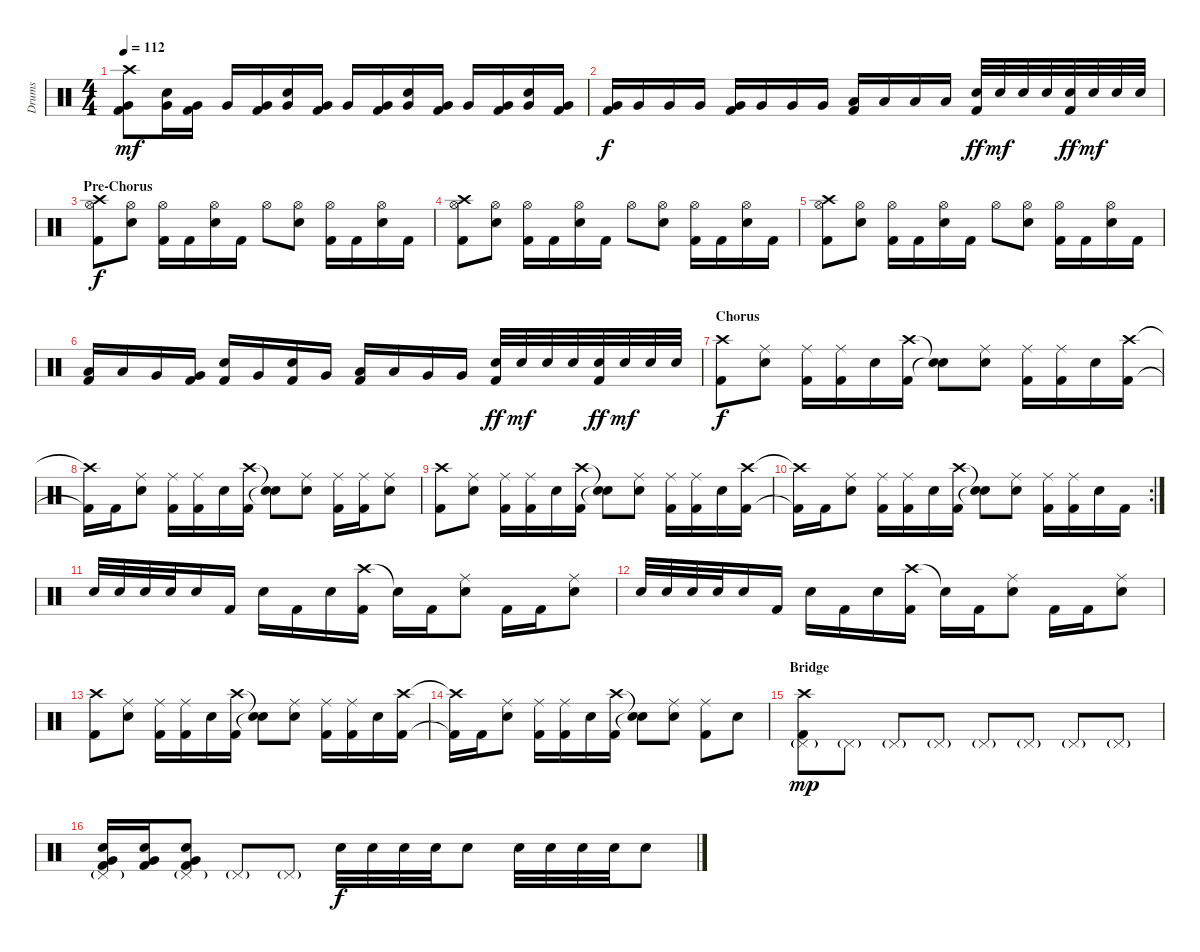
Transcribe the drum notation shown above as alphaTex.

\track ("Drums" "Drums") {instrument percussion}
\staff {score}
\articulation defaults
\ts (4 4)
\tempo 112
\clef neutral
\ks c
("Crash high (hit)" "Very Low Tom (hit)" "Kick (hit) 2").8{dy mf} ("Electric Snare (hit)" "Very Low Tom (hit)").16 ("Very Low Tom (hit)" "Kick (hit) 2").16 "Very Low Tom (hit)".16 ("Very Low Tom (hit)" "Kick (hit) 2").16 ("Electric Snare (hit)" "Very Low Tom (hit)").16 ("Very Low Tom (hit)" "Kick (hit) 2").16 "Very Low Tom (hit)".16 ("Very Low Tom (hit)" "Kick (hit) 2").16 ("Electric Snare (hit)" "Very Low Tom (hit)").16 ("Very Low Tom (hit)" "Kick (hit) 2").16 "Very Low Tom (hit)".16 ("Very Low Tom (hit)" "Kick (hit) 2").16 ("Electric Snare (hit)" "Very Low Tom (hit)").16 ("Very Low Tom (hit)" "Kick (hit) 2").16 |
("Very Low Tom (hit)" "Kick (hit) 2").16{dy f} "Very Low Tom (hit)".16 "Very Low Tom (hit)".16 "Very Low Tom (hit)".16 ("Very Low Tom (hit)" "Kick (hit) 2").16 "Very Low Tom (hit)".16 "Very Low Tom (hit)".16 "Very Low Tom (hit)".16 ("Low Tom (hit)" "Kick (hit) 2").16 "Low Tom (hit)".16 "Low Tom (hit)".16 "Low Tom (hit)".16 ("Electric Snare (hit)" "Kick (hit) 2").32{dy ff} "Electric Snare (hit)".32{dy mf} "Electric Snare (hit)".32 "Electric Snare (hit)".32 ("Electric Snare (hit)" "Kick (hit) 2").32{dy ff} "Electric Snare (hit)".32{dy mf} "Electric Snare (hit)".32 "Electric Snare (hit)".32 |
\section ("" "Pre-Chorus")
("Crash high (hit)" "Hi-Hat (open)" "Kick (hit) 2").8{dy f} ("Hi-Hat (open)" "Electric Snare (hit)").8 ("Hi-Hat (open)" "Kick (hit) 2").16 "Kick (hit) 2".16 ("Hi-Hat (open)" "Electric Snare (hit)").16 "Kick (hit) 2".16 "Hi-Hat (open)".8 ("Hi-Hat (open)" "Electric Snare (hit)").8 ("Hi-Hat (open)" "Kick (hit) 2").16 "Kick (hit) 2".16 ("Hi-Hat (open)" "Electric Snare (hit)").16 "Kick (hit) 2".16 |
("Crash high (hit)" "Hi-Hat (open)" "Kick (hit) 2").8 ("Hi-Hat (open)" "Electric Snare (hit)").8 ("Hi-Hat (open)" "Kick (hit) 2").16 "Kick (hit) 2".16 ("Hi-Hat (open)" "Electric Snare (hit)").16 "Kick (hit) 2".16 "Hi-Hat (open)".8 ("Hi-Hat (open)" "Electric Snare (hit)").8 ("Hi-Hat (open)" "Kick (hit) 2").16 "Kick (hit) 2".16 ("Hi-Hat (open)" "Electric Snare (hit)").16 "Kick (hit) 2".16 |
("Crash high (hit)" "Hi-Hat (open)" "Kick (hit) 2").8 ("Hi-Hat (open)" "Electric Snare (hit)").8 ("Hi-Hat (open)" "Kick (hit) 2").16 "Kick (hit) 2".16 ("Hi-Hat (open)" "Electric Snare (hit)").16 "Kick (hit) 2".16 "Hi-Hat (open)".8 ("Hi-Hat (open)" "Electric Snare (hit)").8 ("Hi-Hat (open)" "Kick (hit) 2").16 "Kick (hit) 2".16 ("Hi-Hat (open)" "Electric Snare (hit)").16 "Kick (hit) 2".16 |
("Low Tom (hit)" "Kick (hit) 2").16 "Low Tom (hit)".16 "Very Low Tom (hit)".16 ("Very Low Tom (hit)" "Kick (hit) 2").16 ("Electric Snare (hit)" "Kick (hit) 2").16 "Very Low Tom (hit)".16 ("Electric Snare (hit)" "Kick (hit) 2").16 "Very Low Tom (hit)".16 ("Low Tom (hit)" "Kick (hit) 2").16 "Low Tom (hit)".16 "Very Low Tom (hit)".16 "Very Low Tom (hit)".16 ("Electric Snare (hit)" "Kick (hit) 2").32{dy ff} "Electric Snare (hit)".32{dy mf} "Electric Snare (hit)".32 "Electric Snare (hit)".32 ("Electric Snare (hit)" "Kick (hit) 2").32{dy ff} "Electric Snare (hit)".32{dy mf} "Electric Snare (hit)".32 "Electric Snare (hit)".32 |
\section ("" "Chorus")
("Crash high (hit)" "Kick (hit) 2").8{dy f} ("Ride (middle)" "Electric Snare (hit)").8 ("Ride (middle)" "Kick (hit) 2").16 ("Ride (middle)" "Kick (hit) 2").16 "Electric Snare (hit)".16 ("Crash high (hit)" "Kick (hit) 2").16 ("Snare (hit)"{t} "Snare (hit)"{t}).8 ("Ride (middle)" "Electric Snare (hit)").8 ("Ride (middle)" "Kick (hit) 2").16 ("Ride (middle)" "Kick (hit) 2").16 "Electric Snare (hit)".16 ("Crash high (hit)" "Kick (hit) 2").16 |
("Crash high (hit)"{t} "Kick (hit) 2"{t}).16 "Kick (hit) 2".16 ("Ride (middle)" "Electric Snare (hit)").8 ("Ride (middle)" "Kick (hit) 2").16 ("Ride (middle)" "Kick (hit) 2").16 "Electric Snare (hit)".16 ("Crash high (hit)" "Kick (hit) 2").16 ("Snare (hit)"{t} "Snare (hit)"{t}).8 ("Ride (middle)" "Electric Snare (hit)").8 ("Ride (middle)" "Kick (hit) 2").16 ("Ride (middle)" "Kick (hit) 2").16 ("Ride (middle)" "Electric Snare (hit)").8 |
("Crash high (hit)" "Kick (hit) 2").8 ("Ride (middle)" "Electric Snare (hit)").8 ("Ride (middle)" "Kick (hit) 2").16 ("Ride (middle)" "Kick (hit) 2").16 "Electric Snare (hit)".16 ("Crash high (hit)" "Kick (hit) 2").16 ("Snare (hit)"{t} "Snare (hit)"{t}).8 ("Ride (middle)" "Electric Snare (hit)").8 ("Ride (middle)" "Kick (hit) 2").16 ("Ride (middle)" "Kick (hit) 2").16 "Electric Snare (hit)".16 ("Crash high (hit)" "Kick (hit) 2").16 |
\rc 2
("Crash high (hit)"{t} "Kick (hit) 2"{t}).16 "Kick (hit) 2".16 ("Ride (middle)" "Electric Snare (hit)").8 ("Ride (middle)" "Kick (hit) 2").16 ("Ride (middle)" "Kick (hit) 2").16 "Electric Snare (hit)".16 ("Crash high (hit)" "Kick (hit) 2").16 ("Snare (hit)"{t} "Snare (hit)"{t}).8 ("Ride (middle)" "Electric Snare (hit)").8 ("Ride (middle)" "Kick (hit) 2").16 ("Ride (middle)" "Kick (hit) 2").16 "Electric Snare (hit)".16 "Kick (hit) 2".16 |
"Electric Snare (hit)".32 "Electric Snare (hit)".32 "Electric Snare (hit)".32 "Electric Snare (hit)".32 "Electric Snare (hit)".16 "Kick (hit) 2".16 "Electric Snare (hit)".16 "Kick (hit) 2".16 "Electric Snare (hit)".16 ("Crash high (hit)" "Kick (hit) 2").16 "Snare (hit)"{t}.16 "Kick (hit) 2".16 ("Ride (middle)" "Electric Snare (hit)").8 "Kick (hit) 2".16 "Kick (hit) 2".16 ("Ride (middle)" "Electric Snare (hit)").8 |
"Electric Snare (hit)".32 "Electric Snare (hit)".32 "Electric Snare (hit)".32 "Electric Snare (hit)".32 "Electric Snare (hit)".16 "Kick (hit) 2".16 "Electric Snare (hit)".16 "Kick (hit) 2".16 "Electric Snare (hit)".16 ("Crash high (hit)" "Kick (hit) 2").16 "Snare (hit)"{t}.16 "Kick (hit) 2".16 ("Ride (middle)" "Electric Snare (hit)").8 "Kick (hit) 2".16 "Kick (hit) 2".16 ("Ride (middle)" "Electric Snare (hit)").8 |
("Crash high (hit)" "Kick (hit) 2").8 ("Ride (middle)" "Electric Snare (hit)").8 ("Ride (middle)" "Kick (hit) 2").16 ("Ride (middle)" "Kick (hit) 2").16 "Electric Snare (hit)".16 ("Crash high (hit)" "Kick (hit) 2").16 ("Snare (hit)"{t} "Snare (hit)"{t}).8 ("Ride (middle)" "Electric Snare (hit)").8 ("Ride (middle)" "Kick (hit) 2").16 ("Ride (middle)" "Kick (hit) 2").16 "Electric Snare (hit)".16 ("Crash high (hit)" "Kick (hit) 2").16 |
("Crash high (hit)"{t} "Kick (hit) 2"{t}).16 "Kick (hit) 2".16 ("Ride (middle)" "Electric Snare (hit)").8 ("Ride (middle)" "Kick (hit) 2").16 ("Ride (middle)" "Kick (hit) 2").16 "Electric Snare (hit)".16 ("Crash high (hit)" "Kick (hit) 2").16 ("Snare (hit)"{t} "Snare (hit)"{t}).8 ("Ride (middle)" "Electric Snare (hit)").8 ("Ride (middle)" "Kick (hit) 2").8 "Electric Snare (hit)".8 |
\section ("" "Bridge")
("Crash high (hit)" "Pedal Hi-Hat (hit)"{g} "Kick (hit) 2").8{dy mp} "Pedal Hi-Hat (hit)"{g}.8 "Pedal Hi-Hat (hit)"{g}.8 "Pedal Hi-Hat (hit)"{g}.8 "Pedal Hi-Hat (hit)"{g}.8 "Pedal Hi-Hat (hit)"{g}.8 "Pedal Hi-Hat (hit)"{g}.8 "Pedal Hi-Hat (hit)"{g}.8 |
("Very Low Tom (hit)" "Pedal Hi-Hat (hit)"{g} "Electric Snare (hit)" "Kick (hit) 2").16 ("Very Low Tom (hit)" "Electric Snare (hit)" "Kick (hit) 2").16 ("Very Low Tom (hit)" "Pedal Hi-Hat (hit)"{g} "Electric Snare (hit)" "Kick (hit) 2").8 "Pedal Hi-Hat (hit)"{g}.8 "Pedal Hi-Hat (hit)"{g}.8 "Electric Snare (hit)".32{dy f} "Electric Snare (hit)".32 "Electric Snare (hit)".32 "Electric Snare (hit)".32 "Electric Snare (hit)".8 "Electric Snare (hit)".32 "Electric Snare (hit)".32 "Electric Snare (hit)".32 "Electric Snare (hit)".32 "Electric Snare (hit)".8
